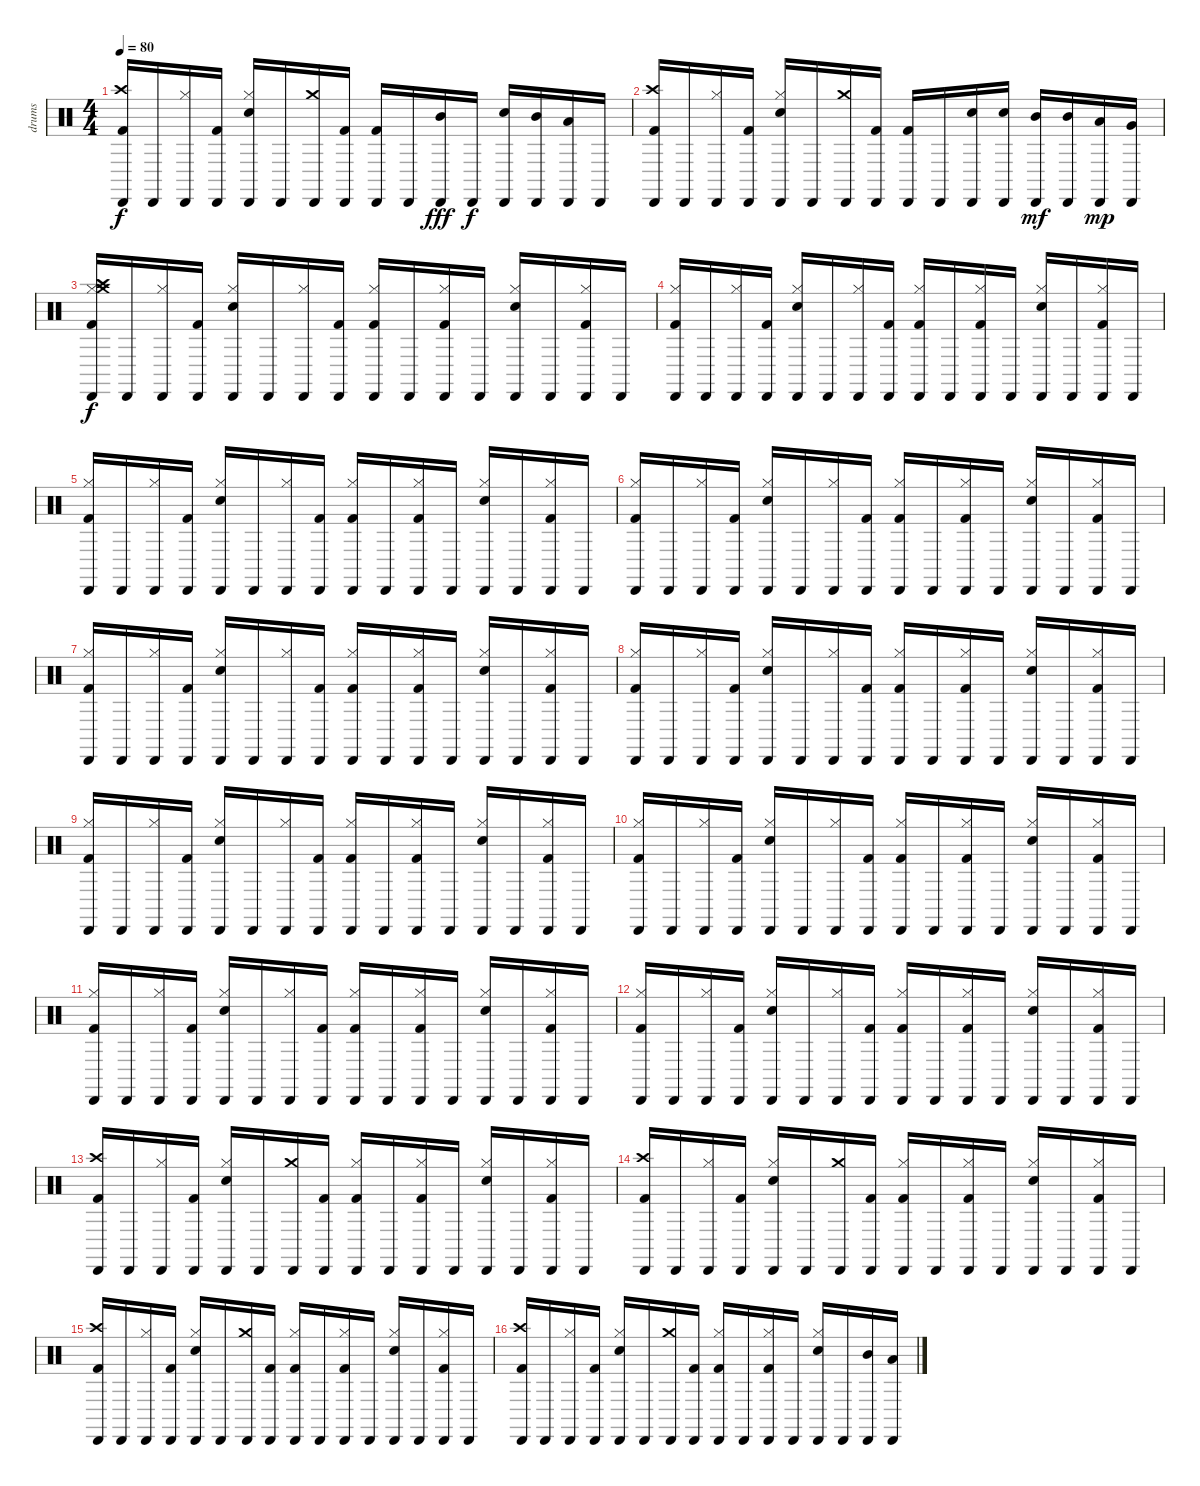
\track ("drums" "drums") {instrument percussion}
\staff {score}
\articulation defaults
\ts (4 4)
\tempo 80
\clef neutral
\ks c
("Cabasa (hit)" "Kick (hit) 2" "Crash high (hit)").16{dy f} "Cabasa (hit)".16 ("Cabasa (hit)" "Hi-Hat (closed)").16 ("Cabasa (hit)" "Kick (hit) 2").16 ("Cabasa (hit)" "Electric Snare (hit)" "Hi-Hat (closed)").16 "Cabasa (hit)".16 ("Cabasa (hit)" "Crash medium (hit)").16 ("Cabasa (hit)" "Kick (hit) 2").16 ("Cabasa (hit)" "Kick (hit) 2").16 "Cabasa (hit)".16 ("Cabasa (hit)" "Mid Tom (hit)").16{dy fff} "Cabasa (hit)".16{dy f} ("Cabasa (hit)" "Electric Snare (hit)").16 ("Cabasa (hit)" "Mid Tom (hit)").16 ("Cabasa (hit)" "Low Tom (hit)").16 "Cabasa (hit)".16 |
("Cabasa (hit)" "Kick (hit) 2" "Crash high (hit)").16 "Cabasa (hit)".16 ("Cabasa (hit)" "Hi-Hat (closed)").16 ("Cabasa (hit)" "Kick (hit) 2").16 ("Cabasa (hit)" "Electric Snare (hit)" "Hi-Hat (closed)").16 "Cabasa (hit)".16 ("Cabasa (hit)" "Crash medium (hit)").16 ("Cabasa (hit)" "Kick (hit) 2").16 ("Cabasa (hit)" "Kick (hit) 2").16 "Cabasa (hit)".16 ("Cabasa (hit)" "Electric Snare (hit)").16 ("Cabasa (hit)" "Electric Snare (hit)").16 ("Cabasa (hit)" "Mid Tom (hit)").16{dy mf} ("Cabasa (hit)" "Mid Tom (hit)").16 ("Cabasa (hit)" "Low Tom (hit)").16{dy mp} ("Cabasa (hit)" "Very Low Tom (hit)").16 |
("Cabasa (hit)" "Hi-Hat (closed)" "Kick (hit) 2" "Crash medium (hit)" "Crash high (hit)").16{dy f} "Cabasa (hit)".16 ("Cabasa (hit)" "Hi-Hat (closed)").16 ("Cabasa (hit)" "Kick (hit) 2").16 ("Cabasa (hit)" "Hi-Hat (closed)" "Electric Snare (hit)").16 "Cabasa (hit)".16 ("Cabasa (hit)" "Hi-Hat (closed)").16 ("Cabasa (hit)" "Kick (hit) 2").16 ("Cabasa (hit)" "Hi-Hat (closed)" "Kick (hit) 2").16 "Cabasa (hit)".16 ("Cabasa (hit)" "Hi-Hat (closed)" "Kick (hit) 2").16 "Cabasa (hit)".16 ("Cabasa (hit)" "Hi-Hat (closed)" "Electric Snare (hit)").16 "Cabasa (hit)".16 ("Cabasa (hit)" "Hi-Hat (closed)" "Kick (hit) 2").16 "Cabasa (hit)".16 |
("Cabasa (hit)" "Hi-Hat (closed)" "Kick (hit) 2").16 "Cabasa (hit)".16 ("Cabasa (hit)" "Hi-Hat (closed)").16 ("Cabasa (hit)" "Kick (hit) 2").16 ("Cabasa (hit)" "Hi-Hat (closed)" "Electric Snare (hit)").16 "Cabasa (hit)".16 ("Cabasa (hit)" "Hi-Hat (closed)").16 ("Cabasa (hit)" "Kick (hit) 2").16 ("Cabasa (hit)" "Hi-Hat (closed)" "Kick (hit) 2").16 "Cabasa (hit)".16 ("Cabasa (hit)" "Hi-Hat (closed)" "Kick (hit) 2").16 "Cabasa (hit)".16 ("Cabasa (hit)" "Hi-Hat (closed)" "Electric Snare (hit)").16 "Cabasa (hit)".16 ("Cabasa (hit)" "Hi-Hat (closed)" "Kick (hit) 2").16 "Cabasa (hit)".16 |
("Cabasa (hit)" "Hi-Hat (closed)" "Kick (hit) 2").16 "Cabasa (hit)".16 ("Cabasa (hit)" "Hi-Hat (closed)").16 ("Cabasa (hit)" "Kick (hit) 2").16 ("Cabasa (hit)" "Hi-Hat (closed)" "Electric Snare (hit)").16 "Cabasa (hit)".16 ("Cabasa (hit)" "Hi-Hat (closed)").16 ("Cabasa (hit)" "Kick (hit) 2").16 ("Cabasa (hit)" "Hi-Hat (closed)" "Kick (hit) 2").16 "Cabasa (hit)".16 ("Cabasa (hit)" "Hi-Hat (closed)" "Kick (hit) 2").16 "Cabasa (hit)".16 ("Cabasa (hit)" "Hi-Hat (closed)" "Electric Snare (hit)").16 "Cabasa (hit)".16 ("Cabasa (hit)" "Hi-Hat (closed)" "Kick (hit) 2").16 "Cabasa (hit)".16 |
("Cabasa (hit)" "Hi-Hat (closed)" "Kick (hit) 2").16 "Cabasa (hit)".16 ("Cabasa (hit)" "Hi-Hat (closed)").16 ("Cabasa (hit)" "Kick (hit) 2").16 ("Cabasa (hit)" "Hi-Hat (closed)" "Electric Snare (hit)").16 "Cabasa (hit)".16 ("Cabasa (hit)" "Hi-Hat (closed)").16 ("Cabasa (hit)" "Kick (hit) 2").16 ("Cabasa (hit)" "Hi-Hat (closed)" "Kick (hit) 2").16 "Cabasa (hit)".16 ("Cabasa (hit)" "Hi-Hat (closed)" "Kick (hit) 2").16 "Cabasa (hit)".16 ("Cabasa (hit)" "Hi-Hat (closed)" "Electric Snare (hit)").16 "Cabasa (hit)".16 ("Cabasa (hit)" "Hi-Hat (closed)" "Kick (hit) 2").16 "Cabasa (hit)".16 |
("Cabasa (hit)" "Hi-Hat (closed)" "Kick (hit) 2").16 "Cabasa (hit)".16 ("Cabasa (hit)" "Hi-Hat (closed)").16 ("Cabasa (hit)" "Kick (hit) 2").16 ("Cabasa (hit)" "Hi-Hat (closed)" "Electric Snare (hit)").16 "Cabasa (hit)".16 ("Cabasa (hit)" "Hi-Hat (closed)").16 ("Cabasa (hit)" "Kick (hit) 2").16 ("Cabasa (hit)" "Hi-Hat (closed)" "Kick (hit) 2").16 "Cabasa (hit)".16 ("Cabasa (hit)" "Hi-Hat (closed)" "Kick (hit) 2").16 "Cabasa (hit)".16 ("Cabasa (hit)" "Hi-Hat (closed)" "Electric Snare (hit)").16 "Cabasa (hit)".16 ("Cabasa (hit)" "Hi-Hat (closed)" "Kick (hit) 2").16 "Cabasa (hit)".16 |
("Cabasa (hit)" "Hi-Hat (closed)" "Kick (hit) 2").16 "Cabasa (hit)".16 ("Cabasa (hit)" "Hi-Hat (closed)").16 ("Cabasa (hit)" "Kick (hit) 2").16 ("Cabasa (hit)" "Hi-Hat (closed)" "Electric Snare (hit)").16 "Cabasa (hit)".16 ("Cabasa (hit)" "Hi-Hat (closed)").16 ("Cabasa (hit)" "Kick (hit) 2").16 ("Cabasa (hit)" "Hi-Hat (closed)" "Kick (hit) 2").16 "Cabasa (hit)".16 ("Cabasa (hit)" "Hi-Hat (closed)" "Kick (hit) 2").16 "Cabasa (hit)".16 ("Cabasa (hit)" "Hi-Hat (closed)" "Electric Snare (hit)").16 "Cabasa (hit)".16 ("Cabasa (hit)" "Hi-Hat (closed)" "Kick (hit) 2").16 "Cabasa (hit)".16 |
("Cabasa (hit)" "Hi-Hat (closed)" "Kick (hit) 2").16 "Cabasa (hit)".16 ("Cabasa (hit)" "Hi-Hat (closed)").16 ("Cabasa (hit)" "Kick (hit) 2").16 ("Cabasa (hit)" "Hi-Hat (closed)" "Electric Snare (hit)").16 "Cabasa (hit)".16 ("Cabasa (hit)" "Hi-Hat (closed)").16 ("Cabasa (hit)" "Kick (hit) 2").16 ("Cabasa (hit)" "Hi-Hat (closed)" "Kick (hit) 2").16 "Cabasa (hit)".16 ("Cabasa (hit)" "Hi-Hat (closed)" "Kick (hit) 2").16 "Cabasa (hit)".16 ("Cabasa (hit)" "Hi-Hat (closed)" "Electric Snare (hit)").16 "Cabasa (hit)".16 ("Cabasa (hit)" "Hi-Hat (closed)" "Kick (hit) 2").16 "Cabasa (hit)".16 |
("Cabasa (hit)" "Hi-Hat (closed)" "Kick (hit) 2").16 "Cabasa (hit)".16 ("Cabasa (hit)" "Hi-Hat (closed)").16 ("Cabasa (hit)" "Kick (hit) 2").16 ("Cabasa (hit)" "Hi-Hat (closed)" "Electric Snare (hit)").16 "Cabasa (hit)".16 ("Cabasa (hit)" "Hi-Hat (closed)").16 ("Cabasa (hit)" "Kick (hit) 2").16 ("Cabasa (hit)" "Hi-Hat (closed)" "Kick (hit) 2").16 "Cabasa (hit)".16 ("Cabasa (hit)" "Hi-Hat (closed)" "Kick (hit) 2").16 "Cabasa (hit)".16 ("Cabasa (hit)" "Hi-Hat (closed)" "Electric Snare (hit)").16 "Cabasa (hit)".16 ("Cabasa (hit)" "Hi-Hat (closed)" "Kick (hit) 2").16 "Cabasa (hit)".16 |
("Cabasa (hit)" "Hi-Hat (closed)" "Kick (hit) 2").16 "Cabasa (hit)".16 ("Cabasa (hit)" "Hi-Hat (closed)").16 ("Cabasa (hit)" "Kick (hit) 2").16 ("Cabasa (hit)" "Hi-Hat (closed)" "Electric Snare (hit)").16 "Cabasa (hit)".16 ("Cabasa (hit)" "Hi-Hat (closed)").16 ("Cabasa (hit)" "Kick (hit) 2").16 ("Cabasa (hit)" "Hi-Hat (closed)" "Kick (hit) 2").16 "Cabasa (hit)".16 ("Cabasa (hit)" "Hi-Hat (closed)" "Kick (hit) 2").16 "Cabasa (hit)".16 ("Cabasa (hit)" "Hi-Hat (closed)" "Electric Snare (hit)").16 "Cabasa (hit)".16 ("Cabasa (hit)" "Hi-Hat (closed)" "Kick (hit) 2").16 "Cabasa (hit)".16 |
("Cabasa (hit)" "Hi-Hat (closed)" "Kick (hit) 2").16 "Cabasa (hit)".16 ("Cabasa (hit)" "Hi-Hat (closed)").16 ("Cabasa (hit)" "Kick (hit) 2").16 ("Cabasa (hit)" "Hi-Hat (closed)" "Electric Snare (hit)").16 "Cabasa (hit)".16 ("Cabasa (hit)" "Hi-Hat (closed)").16 ("Cabasa (hit)" "Kick (hit) 2").16 ("Cabasa (hit)" "Hi-Hat (closed)" "Kick (hit) 2").16 "Cabasa (hit)".16 ("Cabasa (hit)" "Hi-Hat (closed)" "Kick (hit) 2").16 "Cabasa (hit)".16 ("Cabasa (hit)" "Hi-Hat (closed)" "Electric Snare (hit)").16 "Cabasa (hit)".16 ("Cabasa (hit)" "Hi-Hat (closed)" "Kick (hit) 2").16 "Cabasa (hit)".16 |
("Cabasa (hit)" "Crash high (hit)" "Kick (hit) 2").16 "Cabasa (hit)".16 ("Cabasa (hit)" "Hi-Hat (closed)").16 ("Cabasa (hit)" "Kick (hit) 2").16 ("Cabasa (hit)" "Hi-Hat (closed)" "Electric Snare (hit)").16 "Cabasa (hit)".16 ("Cabasa (hit)" "Crash medium (hit)").16 ("Cabasa (hit)" "Kick (hit) 2").16 ("Cabasa (hit)" "Hi-Hat (closed)" "Kick (hit) 2").16 "Cabasa (hit)".16 ("Cabasa (hit)" "Hi-Hat (closed)" "Kick (hit) 2").16 "Cabasa (hit)".16 ("Cabasa (hit)" "Hi-Hat (closed)" "Electric Snare (hit)").16 "Cabasa (hit)".16 ("Cabasa (hit)" "Hi-Hat (closed)" "Kick (hit) 2").16 "Cabasa (hit)".16 |
("Cabasa (hit)" "Crash high (hit)" "Kick (hit) 2").16 "Cabasa (hit)".16 ("Cabasa (hit)" "Hi-Hat (closed)").16 ("Cabasa (hit)" "Kick (hit) 2").16 ("Cabasa (hit)" "Hi-Hat (closed)" "Electric Snare (hit)").16 "Cabasa (hit)".16 ("Cabasa (hit)" "Crash medium (hit)").16 ("Cabasa (hit)" "Kick (hit) 2").16 ("Cabasa (hit)" "Hi-Hat (closed)" "Kick (hit) 2").16 "Cabasa (hit)".16 ("Cabasa (hit)" "Hi-Hat (closed)" "Kick (hit) 2").16 "Cabasa (hit)".16 ("Cabasa (hit)" "Hi-Hat (closed)" "Electric Snare (hit)").16 "Cabasa (hit)".16 ("Cabasa (hit)" "Hi-Hat (closed)" "Kick (hit) 2").16 "Cabasa (hit)".16 |
("Cabasa (hit)" "Crash high (hit)" "Kick (hit) 2").16 "Cabasa (hit)".16 ("Cabasa (hit)" "Hi-Hat (closed)").16 ("Cabasa (hit)" "Kick (hit) 2").16 ("Cabasa (hit)" "Hi-Hat (closed)" "Electric Snare (hit)").16 "Cabasa (hit)".16 ("Cabasa (hit)" "Crash medium (hit)").16 ("Cabasa (hit)" "Kick (hit) 2").16 ("Cabasa (hit)" "Hi-Hat (closed)" "Kick (hit) 2").16 "Cabasa (hit)".16 ("Cabasa (hit)" "Hi-Hat (closed)" "Kick (hit) 2").16 "Cabasa (hit)".16 ("Cabasa (hit)" "Hi-Hat (closed)" "Electric Snare (hit)").16 "Cabasa (hit)".16 ("Cabasa (hit)" "Hi-Hat (closed)" "Kick (hit) 2").16 "Cabasa (hit)".16 |
("Cabasa (hit)" "Crash high (hit)" "Kick (hit) 2").16 "Cabasa (hit)".16 ("Cabasa (hit)" "Hi-Hat (closed)").16 ("Cabasa (hit)" "Kick (hit) 2").16 ("Cabasa (hit)" "Hi-Hat (closed)" "Electric Snare (hit)").16 "Cabasa (hit)".16 ("Cabasa (hit)" "Crash medium (hit)").16 ("Cabasa (hit)" "Kick (hit) 2").16 ("Cabasa (hit)" "Hi-Hat (closed)" "Kick (hit) 2").16 "Cabasa (hit)".16 ("Cabasa (hit)" "Hi-Hat (closed)" "Kick (hit) 2").16 "Cabasa (hit)".16 ("Cabasa (hit)" "Hi-Hat (closed)" "Electric Snare (hit)").16 "Cabasa (hit)".16 ("Cabasa (hit)" "Mid Tom (hit)").16 ("Cabasa (hit)" "Low Tom (hit)").16
